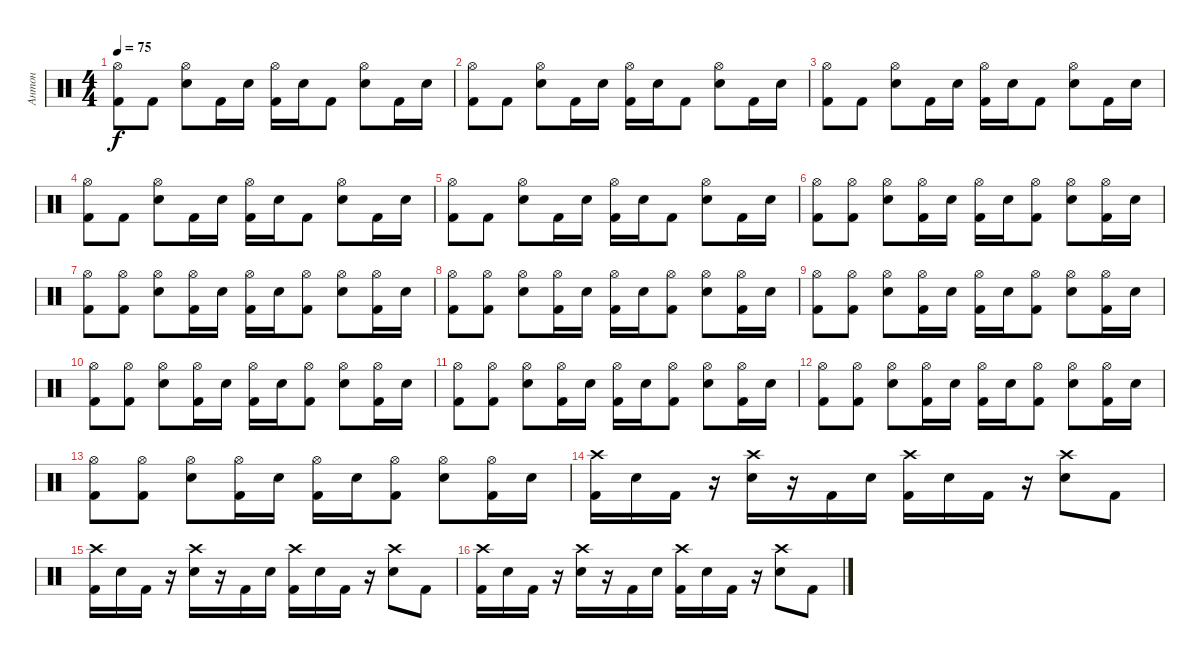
\track ("Антон" "Антон") {instrument percussion}
\staff {score}
\articulation defaults
\ts (4 4)
\tempo 75
\clef neutral
\ks c
("Hi-Hat (open)" "Kick (hit) 2").8{dy f} "Kick (hit) 2".8 ("Hi-Hat (open)" "Electric Snare (hit)").8 "Kick (hit) 2".16 "Electric Snare (hit)".16 ("Hi-Hat (open)" "Kick (hit) 2").16 "Electric Snare (hit)".16 "Kick (hit) 2".8 ("Hi-Hat (open)" "Electric Snare (hit)").8 "Kick (hit) 2".16 "Electric Snare (hit)".16 |
("Hi-Hat (open)" "Kick (hit) 2").8 "Kick (hit) 2".8 ("Hi-Hat (open)" "Electric Snare (hit)").8 "Kick (hit) 2".16 "Electric Snare (hit)".16 ("Hi-Hat (open)" "Kick (hit) 2").16 "Electric Snare (hit)".16 "Kick (hit) 2".8 ("Hi-Hat (open)" "Electric Snare (hit)").8 "Kick (hit) 2".16 "Electric Snare (hit)".16 |
("Hi-Hat (open)" "Kick (hit) 2").8 "Kick (hit) 2".8 ("Hi-Hat (open)" "Electric Snare (hit)").8 "Kick (hit) 2".16 "Electric Snare (hit)".16 ("Hi-Hat (open)" "Kick (hit) 2").16 "Electric Snare (hit)".16 "Kick (hit) 2".8 ("Hi-Hat (open)" "Electric Snare (hit)").8 "Kick (hit) 2".16 "Electric Snare (hit)".16 |
("Hi-Hat (open)" "Kick (hit) 2").8 "Kick (hit) 2".8 ("Hi-Hat (open)" "Electric Snare (hit)").8 "Kick (hit) 2".16 "Electric Snare (hit)".16 ("Hi-Hat (open)" "Kick (hit) 2").16 "Electric Snare (hit)".16 "Kick (hit) 2".8 ("Hi-Hat (open)" "Electric Snare (hit)").8 "Kick (hit) 2".16 "Electric Snare (hit)".16 |
("Hi-Hat (open)" "Kick (hit) 2").8 "Kick (hit) 2".8 ("Hi-Hat (open)" "Electric Snare (hit)").8 "Kick (hit) 2".16 "Electric Snare (hit)".16 ("Hi-Hat (open)" "Kick (hit) 2").16 "Electric Snare (hit)".16 "Kick (hit) 2".8 ("Hi-Hat (open)" "Electric Snare (hit)").8 "Kick (hit) 2".16 "Electric Snare (hit)".16 |
("Hi-Hat (open)" "Kick (hit) 2").8 ("Hi-Hat (open)" "Kick (hit) 2").8 ("Hi-Hat (open)" "Electric Snare (hit)").8 ("Hi-Hat (open)" "Kick (hit) 2").16 "Electric Snare (hit)".16 ("Hi-Hat (open)" "Kick (hit) 2").16 "Electric Snare (hit)".16 ("Hi-Hat (open)" "Kick (hit) 2").8 ("Hi-Hat (open)" "Electric Snare (hit)").8 ("Hi-Hat (open)" "Kick (hit) 2").16 "Electric Snare (hit)".16 |
("Hi-Hat (open)" "Kick (hit) 2").8 ("Hi-Hat (open)" "Kick (hit) 2").8 ("Hi-Hat (open)" "Electric Snare (hit)").8 ("Hi-Hat (open)" "Kick (hit) 2").16 "Electric Snare (hit)".16 ("Hi-Hat (open)" "Kick (hit) 2").16 "Electric Snare (hit)".16 ("Hi-Hat (open)" "Kick (hit) 2").8 ("Hi-Hat (open)" "Electric Snare (hit)").8 ("Hi-Hat (open)" "Kick (hit) 2").16 "Electric Snare (hit)".16 |
("Hi-Hat (open)" "Kick (hit) 2").8 ("Hi-Hat (open)" "Kick (hit) 2").8 ("Hi-Hat (open)" "Electric Snare (hit)").8 ("Hi-Hat (open)" "Kick (hit) 2").16 "Electric Snare (hit)".16 ("Hi-Hat (open)" "Kick (hit) 2").16 "Electric Snare (hit)".16 ("Hi-Hat (open)" "Kick (hit) 2").8 ("Hi-Hat (open)" "Electric Snare (hit)").8 ("Hi-Hat (open)" "Kick (hit) 2").16 "Electric Snare (hit)".16 |
("Hi-Hat (open)" "Kick (hit) 2").8 ("Hi-Hat (open)" "Kick (hit) 2").8 ("Hi-Hat (open)" "Electric Snare (hit)").8 ("Hi-Hat (open)" "Kick (hit) 2").16 "Electric Snare (hit)".16 ("Hi-Hat (open)" "Kick (hit) 2").16 "Electric Snare (hit)".16 ("Hi-Hat (open)" "Kick (hit) 2").8 ("Hi-Hat (open)" "Electric Snare (hit)").8 ("Hi-Hat (open)" "Kick (hit) 2").16 "Electric Snare (hit)".16 |
("Hi-Hat (open)" "Kick (hit) 2").8 ("Hi-Hat (open)" "Kick (hit) 2").8 ("Hi-Hat (open)" "Electric Snare (hit)").8 ("Hi-Hat (open)" "Kick (hit) 2").16 "Electric Snare (hit)".16 ("Hi-Hat (open)" "Kick (hit) 2").16 "Electric Snare (hit)".16 ("Hi-Hat (open)" "Kick (hit) 2").8 ("Hi-Hat (open)" "Electric Snare (hit)").8 ("Hi-Hat (open)" "Kick (hit) 2").16 "Electric Snare (hit)".16 |
("Hi-Hat (open)" "Kick (hit) 2").8 ("Hi-Hat (open)" "Kick (hit) 2").8 ("Hi-Hat (open)" "Electric Snare (hit)").8 ("Hi-Hat (open)" "Kick (hit) 2").16 "Electric Snare (hit)".16 ("Hi-Hat (open)" "Kick (hit) 2").16 "Electric Snare (hit)".16 ("Hi-Hat (open)" "Kick (hit) 2").8 ("Hi-Hat (open)" "Electric Snare (hit)").8 ("Hi-Hat (open)" "Kick (hit) 2").16 "Electric Snare (hit)".16 |
("Hi-Hat (open)" "Kick (hit) 2").8 ("Hi-Hat (open)" "Kick (hit) 2").8 ("Hi-Hat (open)" "Electric Snare (hit)").8 ("Hi-Hat (open)" "Kick (hit) 2").16 "Electric Snare (hit)".16 ("Hi-Hat (open)" "Kick (hit) 2").16 "Electric Snare (hit)".16 ("Hi-Hat (open)" "Kick (hit) 2").8 ("Hi-Hat (open)" "Electric Snare (hit)").8 ("Hi-Hat (open)" "Kick (hit) 2").16 "Electric Snare (hit)".16 |
("Hi-Hat (open)" "Kick (hit) 2").8 ("Hi-Hat (open)" "Kick (hit) 2").8 ("Hi-Hat (open)" "Electric Snare (hit)").8 ("Hi-Hat (open)" "Kick (hit) 2").16 "Electric Snare (hit)".16 ("Hi-Hat (open)" "Kick (hit) 2").16 "Electric Snare (hit)".16 ("Hi-Hat (open)" "Kick (hit) 2").8 ("Hi-Hat (open)" "Electric Snare (hit)").8 ("Hi-Hat (open)" "Kick (hit) 2").16 "Electric Snare (hit)".16 |
("Crash high (hit)" "Kick (hit) 2").16 "Electric Snare (hit)".16 "Kick (hit) 2".16 r.16 ("Crash high (hit)" "Electric Snare (hit)").16 r.16 "Kick (hit) 2".16 "Electric Snare (hit)".16 ("Crash high (hit)" "Kick (hit) 2").16 "Electric Snare (hit)".16 "Kick (hit) 2".16 r.16 ("Crash high (hit)" "Electric Snare (hit)").8 "Kick (hit) 2".8 |
("Crash high (hit)" "Kick (hit) 2").16 "Electric Snare (hit)".16 "Kick (hit) 2".16 r.16 ("Crash high (hit)" "Electric Snare (hit)").16 r.16 "Kick (hit) 2".16 "Electric Snare (hit)".16 ("Crash high (hit)" "Kick (hit) 2").16 "Electric Snare (hit)".16 "Kick (hit) 2".16 r.16 ("Crash high (hit)" "Electric Snare (hit)").8 "Kick (hit) 2".8 |
("Crash high (hit)" "Kick (hit) 2").16 "Electric Snare (hit)".16 "Kick (hit) 2".16 r.16 ("Crash high (hit)" "Electric Snare (hit)").16 r.16 "Kick (hit) 2".16 "Electric Snare (hit)".16 ("Crash high (hit)" "Kick (hit) 2").16 "Electric Snare (hit)".16 "Kick (hit) 2".16 r.16 ("Crash high (hit)" "Electric Snare (hit)").8 "Kick (hit) 2".8
